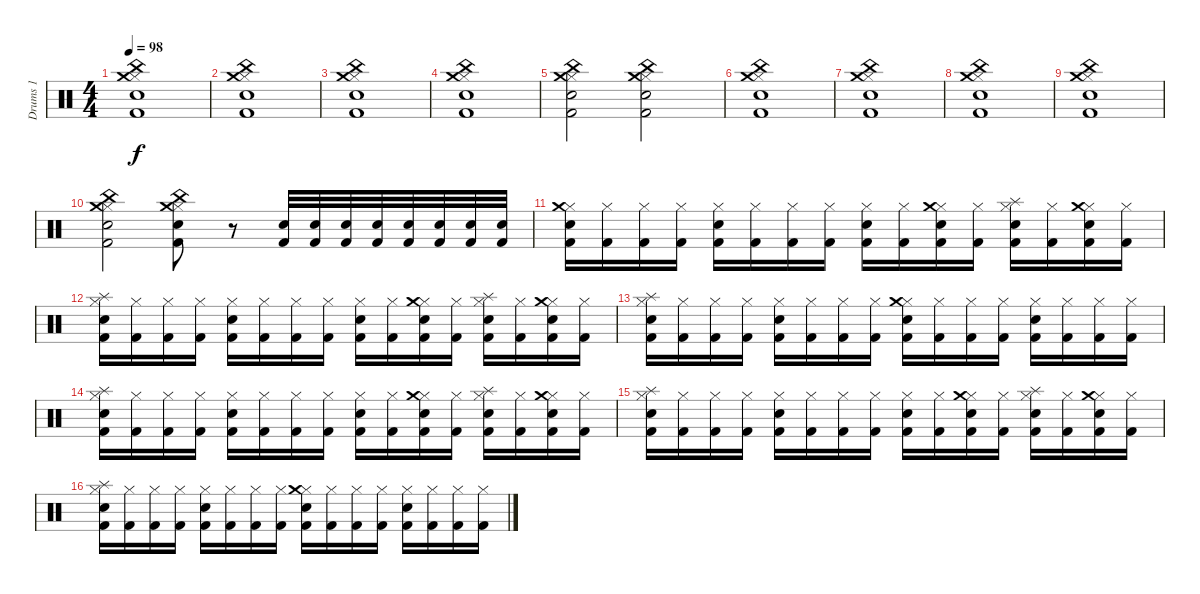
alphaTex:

\track ("Drums 1" "Drums 1") {instrument percussion}
\staff {score}
\articulation defaults
\ts (4 4)
\tempo 98
\clef neutral
\ks c
("Hi-Hat (closed)" "Kick (hit) 2" "Snare (hit) 2" "China (hit)" "Crash medium (hit)").1{dy f} |
("Hi-Hat (closed)" "Kick (hit) 2" "Snare (hit) 2" "China (hit)" "Crash medium (hit)").1 |
("Hi-Hat (closed)" "Kick (hit) 2" "Snare (hit) 2" "China (hit)" "Crash medium (hit)").1 |
("Hi-Hat (closed)" "Kick (hit) 2" "Snare (hit) 2" "China (hit)" "Crash medium (hit)").1 |
("Hi-Hat (closed)" "Kick (hit) 2" "Snare (hit) 2" "China (hit)" "Crash medium (hit)").2 ("Hi-Hat (closed)" "Kick (hit) 2" "Snare (hit) 2" "China (hit)" "Crash medium (hit)").2 |
("Hi-Hat (closed)" "Kick (hit) 2" "Snare (hit) 2" "China (hit)" "Crash medium (hit)").1 |
("Hi-Hat (closed)" "Kick (hit) 2" "Snare (hit) 2" "China (hit)" "Crash medium (hit)").1 |
("Hi-Hat (closed)" "Kick (hit) 2" "Snare (hit) 2" "China (hit)" "Crash medium (hit)").1 |
("Hi-Hat (closed)" "Kick (hit) 2" "Snare (hit) 2" "China (hit)" "Crash medium (hit)").1 |
("Hi-Hat (closed)" "Kick (hit) 2" "Snare (hit) 2" "China (hit)" "Crash medium (hit)").2 ("Hi-Hat (closed)" "Kick (hit) 2" "Snare (hit) 2" "China (hit)" "Crash medium (hit)").8 r.8 ("Kick (hit) 2" "Snare (hit) 2").32 ("Kick (hit) 2" "Snare (hit) 2").32 ("Kick (hit) 2" "Snare (hit) 2").32 ("Kick (hit) 2" "Snare (hit) 2").32 ("Kick (hit) 2" "Snare (hit) 2").32 ("Kick (hit) 2" "Snare (hit) 2").32 ("Kick (hit) 2" "Snare (hit) 2").32 ("Kick (hit) 2" "Snare (hit) 2").32 |
("Hi-Hat (closed)" "Snare (hit) 2" "Kick (hit) 2" "Crash medium (hit)").16 ("Hi-Hat (closed)" "Kick (hit) 2").16 ("Hi-Hat (closed)" "Kick (hit) 2").16 ("Hi-Hat (closed)" "Kick (hit) 2").16 ("Hi-Hat (closed)" "Snare (hit) 2" "Kick (hit) 2").16 ("Hi-Hat (closed)" "Kick (hit) 2").16 ("Hi-Hat (closed)" "Kick (hit) 2").16 ("Hi-Hat (closed)" "Kick (hit) 2").16 ("Hi-Hat (closed)" "Snare (hit) 2" "Kick (hit) 2").16 ("Hi-Hat (closed)" "Kick (hit) 2").16 ("Hi-Hat (closed)" "Snare (hit) 2" "Kick (hit) 2" "Crash medium (hit)").16 ("Hi-Hat (closed)" "Kick (hit) 2").16 ("Hi-Hat (closed)" "Snare (hit) 2" "Kick (hit) 2" "Splash (hit)").16 ("Hi-Hat (closed)" "Kick (hit) 2").16 ("Hi-Hat (closed)" "Snare (hit) 2" "Kick (hit) 2" "Crash medium (hit)").16 ("Hi-Hat (closed)" "Kick (hit) 2").16 |
("Hi-Hat (closed)" "Snare (hit) 2" "Kick (hit) 2" "Splash (hit)").16 ("Hi-Hat (closed)" "Kick (hit) 2").16 ("Hi-Hat (closed)" "Kick (hit) 2").16 ("Hi-Hat (closed)" "Kick (hit) 2").16 ("Hi-Hat (closed)" "Snare (hit) 2" "Kick (hit) 2").16 ("Hi-Hat (closed)" "Kick (hit) 2").16 ("Hi-Hat (closed)" "Kick (hit) 2").16 ("Hi-Hat (closed)" "Kick (hit) 2").16 ("Hi-Hat (closed)" "Snare (hit) 2" "Kick (hit) 2").16 ("Hi-Hat (closed)" "Kick (hit) 2").16 ("Hi-Hat (closed)" "Snare (hit) 2" "Kick (hit) 2" "Crash medium (hit)").16 ("Hi-Hat (closed)" "Kick (hit) 2").16 ("Hi-Hat (closed)" "Snare (hit) 2" "Kick (hit) 2" "Splash (hit)").16 ("Hi-Hat (closed)" "Kick (hit) 2").16 ("Hi-Hat (closed)" "Snare (hit) 2" "Kick (hit) 2" "Crash medium (hit)").16 ("Hi-Hat (closed)" "Kick (hit) 2").16 |
("Hi-Hat (closed)" "Snare (hit) 2" "Kick (hit) 2" "Splash (hit)").16 ("Hi-Hat (closed)" "Kick (hit) 2").16 ("Hi-Hat (closed)" "Kick (hit) 2").16 ("Hi-Hat (closed)" "Kick (hit) 2").16 ("Hi-Hat (closed)" "Snare (hit) 2" "Kick (hit) 2").16 ("Hi-Hat (closed)" "Kick (hit) 2").16 ("Hi-Hat (closed)" "Kick (hit) 2").16 ("Hi-Hat (closed)" "Kick (hit) 2").16 ("Hi-Hat (closed)" "Snare (hit) 2" "Kick (hit) 2" "Crash medium (hit)").16 ("Hi-Hat (closed)" "Kick (hit) 2").16 ("Hi-Hat (closed)" "Kick (hit) 2").16 ("Hi-Hat (closed)" "Kick (hit) 2").16 ("Hi-Hat (closed)" "Snare (hit) 2" "Kick (hit) 2").16 ("Hi-Hat (closed)" "Kick (hit) 2").16 ("Hi-Hat (closed)" "Kick (hit) 2").16 ("Hi-Hat (closed)" "Kick (hit) 2").16 |
("Hi-Hat (closed)" "Snare (hit) 2" "Kick (hit) 2" "Splash (hit)").16 ("Hi-Hat (closed)" "Kick (hit) 2").16 ("Hi-Hat (closed)" "Kick (hit) 2").16 ("Hi-Hat (closed)" "Kick (hit) 2").16 ("Hi-Hat (closed)" "Snare (hit) 2" "Kick (hit) 2").16 ("Hi-Hat (closed)" "Kick (hit) 2").16 ("Hi-Hat (closed)" "Kick (hit) 2").16 ("Hi-Hat (closed)" "Kick (hit) 2").16 ("Hi-Hat (closed)" "Snare (hit) 2" "Kick (hit) 2").16 ("Hi-Hat (closed)" "Kick (hit) 2").16 ("Hi-Hat (closed)" "Snare (hit) 2" "Kick (hit) 2" "Crash medium (hit)").16 ("Hi-Hat (closed)" "Kick (hit) 2").16 ("Hi-Hat (closed)" "Snare (hit) 2" "Kick (hit) 2" "Splash (hit)").16 ("Hi-Hat (closed)" "Kick (hit) 2").16 ("Hi-Hat (closed)" "Snare (hit) 2" "Kick (hit) 2" "Crash medium (hit)").16 ("Hi-Hat (closed)" "Kick (hit) 2").16 |
("Hi-Hat (closed)" "Snare (hit) 2" "Kick (hit) 2" "Splash (hit)").16 ("Hi-Hat (closed)" "Kick (hit) 2").16 ("Hi-Hat (closed)" "Kick (hit) 2").16 ("Hi-Hat (closed)" "Kick (hit) 2").16 ("Hi-Hat (closed)" "Snare (hit) 2" "Kick (hit) 2").16 ("Hi-Hat (closed)" "Kick (hit) 2").16 ("Hi-Hat (closed)" "Kick (hit) 2").16 ("Hi-Hat (closed)" "Kick (hit) 2").16 ("Hi-Hat (closed)" "Snare (hit) 2" "Kick (hit) 2").16 ("Hi-Hat (closed)" "Kick (hit) 2").16 ("Hi-Hat (closed)" "Snare (hit) 2" "Kick (hit) 2" "Crash medium (hit)").16 ("Hi-Hat (closed)" "Kick (hit) 2").16 ("Hi-Hat (closed)" "Snare (hit) 2" "Kick (hit) 2" "Splash (hit)").16 ("Hi-Hat (closed)" "Kick (hit) 2").16 ("Hi-Hat (closed)" "Snare (hit) 2" "Kick (hit) 2" "Crash medium (hit)").16 ("Hi-Hat (closed)" "Kick (hit) 2").16 |
("Hi-Hat (closed)" "Snare (hit) 2" "Kick (hit) 2" "Splash (hit)").16 ("Hi-Hat (closed)" "Kick (hit) 2").16 ("Hi-Hat (closed)" "Kick (hit) 2").16 ("Hi-Hat (closed)" "Kick (hit) 2").16 ("Hi-Hat (closed)" "Snare (hit) 2" "Kick (hit) 2").16 ("Hi-Hat (closed)" "Kick (hit) 2").16 ("Hi-Hat (closed)" "Kick (hit) 2").16 ("Hi-Hat (closed)" "Kick (hit) 2").16 ("Hi-Hat (closed)" "Snare (hit) 2" "Kick (hit) 2" "Crash medium (hit)").16 ("Hi-Hat (closed)" "Kick (hit) 2").16 ("Hi-Hat (closed)" "Kick (hit) 2").16 ("Hi-Hat (closed)" "Kick (hit) 2").16 ("Hi-Hat (closed)" "Snare (hit) 2" "Kick (hit) 2").16 ("Hi-Hat (closed)" "Kick (hit) 2").16 ("Hi-Hat (closed)" "Kick (hit) 2").16 ("Hi-Hat (closed)" "Kick (hit) 2").16
